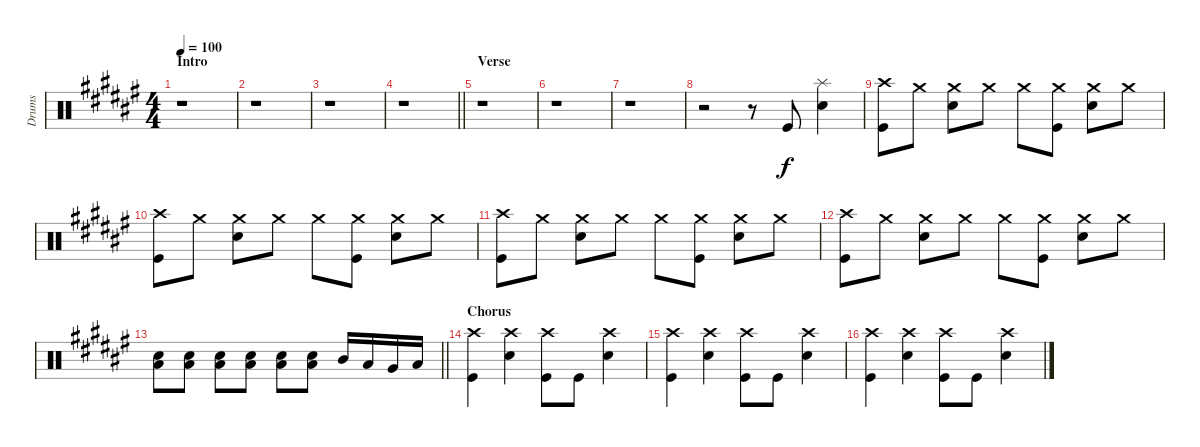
\track ("Drums" "Drums") {instrument percussion}
\staff {score}
\articulation defaults
\ts (4 4)
\section ("" "Intro")
\tempo 100
\clef neutral
\ks f#
r.1{dy f} |
r.1 |
r.1 |
\barLineRight lightlight
r.1 |
\section ("" "Verse")
r.1 |
r.1 |
r.1 |
r.2 r.8 "Kick (hit)".8 ("Splash (hit)" "Snare (hit) 2").4 |
("Crash high (hit)" "Kick (hit)").8 "Crash medium (hit)".8 ("Crash medium (hit)" "Snare (hit) 2").8 "Crash medium (hit)".8 "Crash medium (hit)".8 ("Crash medium (hit)" "Kick (hit)").8 ("Crash medium (hit)" "Snare (hit) 2").8 "Crash medium (hit)".8 |
("Crash high (hit)" "Kick (hit)").8 "Crash medium (hit)".8 ("Crash medium (hit)" "Snare (hit) 2").8 "Crash medium (hit)".8 "Crash medium (hit)".8 ("Crash medium (hit)" "Kick (hit)").8 ("Crash medium (hit)" "Snare (hit) 2").8 "Crash medium (hit)".8 |
("Crash high (hit)" "Kick (hit)").8 "Crash medium (hit)".8 ("Crash medium (hit)" "Snare (hit) 2").8 "Crash medium (hit)".8 "Crash medium (hit)".8 ("Crash medium (hit)" "Kick (hit)").8 ("Crash medium (hit)" "Snare (hit) 2").8 "Crash medium (hit)".8 |
("Crash high (hit)" "Kick (hit)").8 "Crash medium (hit)".8 ("Crash medium (hit)" "Snare (hit) 2").8 "Crash medium (hit)".8 "Crash medium (hit)".8 ("Crash medium (hit)" "Kick (hit)").8 ("Crash medium (hit)" "Snare (hit) 2").8 "Crash medium (hit)".8 |
\barLineRight lightlight
("Low Floor Tom (hit)" "Snare (hit) 2").8 ("Low Floor Tom (hit)" "Snare (hit) 2").8 ("Low Floor Tom (hit)" "Snare (hit) 2").8 ("Low Floor Tom (hit)" "Snare (hit) 2").8 ("Low Floor Tom (hit)" "Snare (hit) 2").8 ("Low Floor Tom (hit)" "Snare (hit) 2").8 "Mid Tom (hit)".16 "Low Tom (hit)".16 "Very Low Tom (hit)".16 "Low Floor Tom (hit)".16 |
\section ("" "Chorus")
("Crash high (hit)" "Kick (hit)").4 ("Crash high (hit)" "Snare (hit) 2").4 ("Crash high (hit)" "Kick (hit)").8 "Kick (hit)".8 ("Crash high (hit)" "Snare (hit) 2").4 |
("Crash high (hit)" "Kick (hit)").4 ("Crash high (hit)" "Snare (hit) 2").4 ("Crash high (hit)" "Kick (hit)").8 "Kick (hit)".8 ("Crash high (hit)" "Snare (hit) 2").4 |
("Crash high (hit)" "Kick (hit)").4 ("Crash high (hit)" "Snare (hit) 2").4 ("Crash high (hit)" "Kick (hit)").8 "Kick (hit)".8 ("Crash high (hit)" "Snare (hit) 2").4
